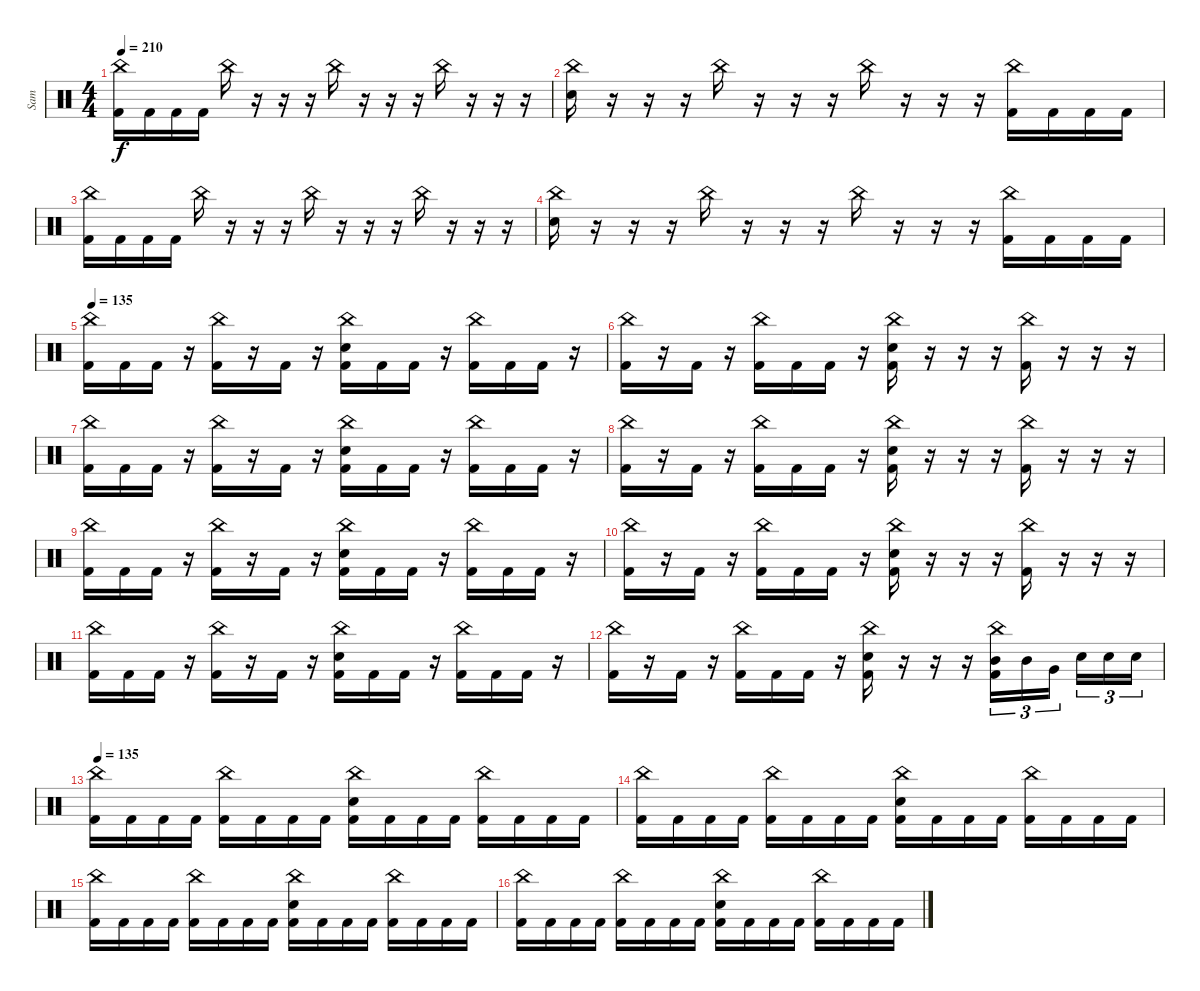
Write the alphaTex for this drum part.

\track ("Sam" "Sam") {instrument percussion}
\staff {score}
\articulation defaults
\ts (4 4)
\tempo 210
\clef neutral
\ks c
("China (hit)" "Kick (hit) 2").16{dy f} "Kick (hit) 2".16 "Kick (hit) 2".16 "Kick (hit) 2".16 "China (hit)".16 r.16 r.16 r.16 "China (hit)".16 r.16 r.16 r.16 "China (hit)".16 r.16 r.16 r.16 |
("China (hit)" "Snare (hit) 2").16 r.16 r.16 r.16 "China (hit)".16 r.16 r.16 r.16 "China (hit)".16 r.16 r.16 r.16 ("China (hit)" "Kick (hit) 2").16 "Kick (hit) 2".16 "Kick (hit) 2".16 "Kick (hit) 2".16 |
("China (hit)" "Kick (hit) 2").16 "Kick (hit) 2".16 "Kick (hit) 2".16 "Kick (hit) 2".16 "China (hit)".16 r.16 r.16 r.16 "China (hit)".16 r.16 r.16 r.16 "China (hit)".16 r.16 r.16 r.16 |
("China (hit)" "Snare (hit) 2").16 r.16 r.16 r.16 "China (hit)".16 r.16 r.16 r.16 "China (hit)".16 r.16 r.16 r.16 ("China (hit)" "Kick (hit) 2").16 "Kick (hit) 2".16 "Kick (hit) 2".16 "Kick (hit) 2".16 |
\tempo 135
("China (hit)" "Kick (hit) 2").16 "Kick (hit) 2".16 "Kick (hit) 2".16 r.16 ("China (hit)" "Kick (hit) 2").16 r.16 "Kick (hit) 2".16 r.16 ("China (hit)" "Snare (hit) 2" "Kick (hit) 2").16 "Kick (hit) 2".16 "Kick (hit) 2".16 r.16 ("China (hit)" "Kick (hit) 2").16 "Kick (hit) 2".16 "Kick (hit) 2".16 r.16 |
("China (hit)" "Kick (hit) 2").16 r.16 "Kick (hit) 2".16 r.16 ("China (hit)" "Kick (hit) 2").16 "Kick (hit) 2".16 "Kick (hit) 2".16 r.16 ("China (hit)" "Snare (hit) 2" "Kick (hit) 2").16 r.16 r.16 r.16 ("China (hit)" "Kick (hit) 2").16 r.16 r.16 r.16 |
("China (hit)" "Kick (hit) 2").16 "Kick (hit) 2".16 "Kick (hit) 2".16 r.16 ("China (hit)" "Kick (hit) 2").16 r.16 "Kick (hit) 2".16 r.16 ("China (hit)" "Snare (hit) 2" "Kick (hit) 2").16 "Kick (hit) 2".16 "Kick (hit) 2".16 r.16 ("China (hit)" "Kick (hit) 2").16 "Kick (hit) 2".16 "Kick (hit) 2".16 r.16 |
("China (hit)" "Kick (hit) 2").16 r.16 "Kick (hit) 2".16 r.16 ("China (hit)" "Kick (hit) 2").16 "Kick (hit) 2".16 "Kick (hit) 2".16 r.16 ("China (hit)" "Snare (hit) 2" "Kick (hit) 2").16 r.16 r.16 r.16 ("China (hit)" "Kick (hit) 2").16 r.16 r.16 r.16 |
("China (hit)" "Kick (hit) 2").16 "Kick (hit) 2".16 "Kick (hit) 2".16 r.16 ("China (hit)" "Kick (hit) 2").16 r.16 "Kick (hit) 2".16 r.16 ("China (hit)" "Snare (hit) 2" "Kick (hit) 2").16 "Kick (hit) 2".16 "Kick (hit) 2".16 r.16 ("China (hit)" "Kick (hit) 2").16 "Kick (hit) 2".16 "Kick (hit) 2".16 r.16 |
("China (hit)" "Kick (hit) 2").16 r.16 "Kick (hit) 2".16 r.16 ("China (hit)" "Kick (hit) 2").16 "Kick (hit) 2".16 "Kick (hit) 2".16 r.16 ("China (hit)" "Snare (hit) 2" "Kick (hit) 2").16 r.16 r.16 r.16 ("China (hit)" "Kick (hit) 2").16 r.16 r.16 r.16 |
("China (hit)" "Kick (hit) 2").16 "Kick (hit) 2".16 "Kick (hit) 2".16 r.16 ("China (hit)" "Kick (hit) 2").16 r.16 "Kick (hit) 2".16 r.16 ("China (hit)" "Snare (hit) 2" "Kick (hit) 2").16 "Kick (hit) 2".16 "Kick (hit) 2".16 r.16 ("China (hit)" "Kick (hit) 2").16 "Kick (hit) 2".16 "Kick (hit) 2".16 r.16 |
("China (hit)" "Kick (hit) 2").16 r.16 "Kick (hit) 2".16 r.16 ("China (hit)" "Kick (hit) 2").16 "Kick (hit) 2".16 "Kick (hit) 2".16 r.16 ("China (hit)" "Snare (hit) 2" "Kick (hit) 2").16 r.16 r.16 r.16 ("China (hit)" "Mid Tom (hit)" "Kick (hit) 2").16{tu (3 2)} "Mid Tom (hit)".16{tu (3 2)} "Very Low Tom (hit)".16{tu (3 2) beam splitsecondary} "Snare (hit) 2".16{tu (3 2)} "Snare (hit) 2".16{tu (3 2)} "Snare (hit) 2".16{tu (3 2)} |
\tempo 135
("China (hit)" "Kick (hit) 2").16 "Kick (hit) 2".16 "Kick (hit) 2".16 "Kick (hit) 2".16 ("China (hit)" "Kick (hit) 2").16 "Kick (hit) 2".16 "Kick (hit) 2".16 "Kick (hit) 2".16 ("China (hit)" "Snare (hit) 2" "Kick (hit) 2").16 "Kick (hit) 2".16 "Kick (hit) 2".16 "Kick (hit) 2".16 ("China (hit)" "Kick (hit) 2").16 "Kick (hit) 2".16 "Kick (hit) 2".16 "Kick (hit) 2".16 |
("China (hit)" "Kick (hit) 2").16 "Kick (hit) 2".16 "Kick (hit) 2".16 "Kick (hit) 2".16 ("China (hit)" "Kick (hit) 2").16 "Kick (hit) 2".16 "Kick (hit) 2".16 "Kick (hit) 2".16 ("China (hit)" "Snare (hit) 2" "Kick (hit) 2").16 "Kick (hit) 2".16 "Kick (hit) 2".16 "Kick (hit) 2".16 ("China (hit)" "Kick (hit) 2").16 "Kick (hit) 2".16 "Kick (hit) 2".16 "Kick (hit) 2".16 |
("China (hit)" "Kick (hit) 2").16 "Kick (hit) 2".16 "Kick (hit) 2".16 "Kick (hit) 2".16 ("China (hit)" "Kick (hit) 2").16 "Kick (hit) 2".16 "Kick (hit) 2".16 "Kick (hit) 2".16 ("China (hit)" "Snare (hit) 2" "Kick (hit) 2").16 "Kick (hit) 2".16 "Kick (hit) 2".16 "Kick (hit) 2".16 ("China (hit)" "Kick (hit) 2").16 "Kick (hit) 2".16 "Kick (hit) 2".16 "Kick (hit) 2".16 |
("China (hit)" "Kick (hit) 2").16 "Kick (hit) 2".16 "Kick (hit) 2".16 "Kick (hit) 2".16 ("China (hit)" "Kick (hit) 2").16 "Kick (hit) 2".16 "Kick (hit) 2".16 "Kick (hit) 2".16 ("China (hit)" "Snare (hit) 2" "Kick (hit) 2").16 "Kick (hit) 2".16 "Kick (hit) 2".16 "Kick (hit) 2".16 ("China (hit)" "Kick (hit) 2").16 "Kick (hit) 2".16 "Kick (hit) 2".16 "Kick (hit) 2".16
